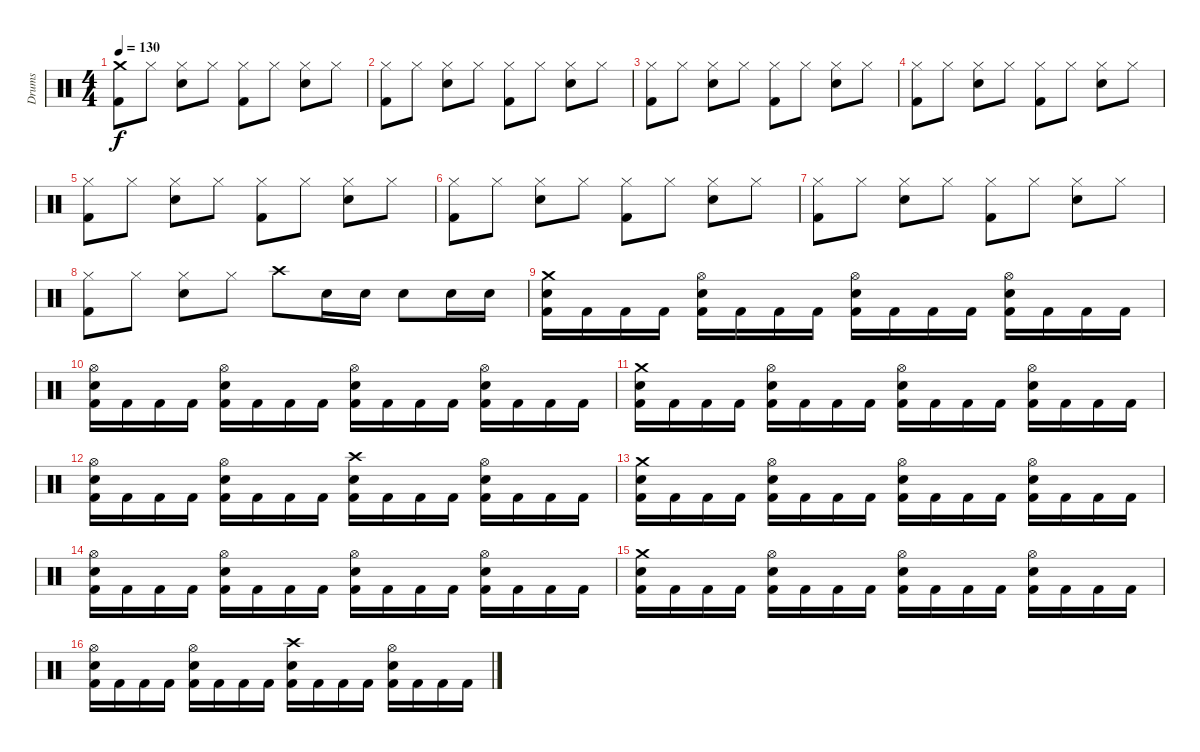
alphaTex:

\track ("Drums" "Drums") {instrument percussion}
\staff {score}
\articulation defaults
\ts (4 4)
\tempo 130
\clef neutral
\ks c
("Crash medium (hit)" "Kick (hit) 2").8{dy f} "Hi-Hat (closed)".8 ("Hi-Hat (closed)" "Snare (hit) 2").8 "Hi-Hat (closed)".8 ("Hi-Hat (closed)" "Kick (hit) 2").8 "Hi-Hat (closed)".8 ("Hi-Hat (closed)" "Snare (hit) 2").8 "Hi-Hat (closed)".8 |
("Hi-Hat (closed)" "Kick (hit) 2").8 "Hi-Hat (closed)".8 ("Hi-Hat (closed)" "Snare (hit) 2").8 "Hi-Hat (closed)".8 ("Hi-Hat (closed)" "Kick (hit) 2").8 "Hi-Hat (closed)".8 ("Hi-Hat (closed)" "Snare (hit) 2").8 "Hi-Hat (closed)".8 |
("Hi-Hat (closed)" "Kick (hit) 2").8 "Hi-Hat (closed)".8 ("Hi-Hat (closed)" "Snare (hit) 2").8 "Hi-Hat (closed)".8 ("Hi-Hat (closed)" "Kick (hit) 2").8 "Hi-Hat (closed)".8 ("Hi-Hat (closed)" "Snare (hit) 2").8 "Hi-Hat (closed)".8 |
("Hi-Hat (closed)" "Kick (hit) 2").8 "Hi-Hat (closed)".8 ("Hi-Hat (closed)" "Snare (hit) 2").8 "Hi-Hat (closed)".8 ("Hi-Hat (closed)" "Kick (hit) 2").8 "Hi-Hat (closed)".8 ("Hi-Hat (closed)" "Snare (hit) 2").8 "Hi-Hat (closed)".8 |
("Hi-Hat (closed)" "Kick (hit) 2").8 "Hi-Hat (closed)".8 ("Hi-Hat (closed)" "Snare (hit) 2").8 "Hi-Hat (closed)".8 ("Hi-Hat (closed)" "Kick (hit) 2").8 "Hi-Hat (closed)".8 ("Hi-Hat (closed)" "Snare (hit) 2").8 "Hi-Hat (closed)".8 |
("Hi-Hat (closed)" "Kick (hit) 2").8 "Hi-Hat (closed)".8 ("Hi-Hat (closed)" "Snare (hit) 2").8 "Hi-Hat (closed)".8 ("Hi-Hat (closed)" "Kick (hit) 2").8 "Hi-Hat (closed)".8 ("Hi-Hat (closed)" "Snare (hit) 2").8 "Hi-Hat (closed)".8 |
("Hi-Hat (closed)" "Kick (hit) 2").8 "Hi-Hat (closed)".8 ("Hi-Hat (closed)" "Snare (hit) 2").8 "Hi-Hat (closed)".8 ("Hi-Hat (closed)" "Kick (hit) 2").8 "Hi-Hat (closed)".8 ("Hi-Hat (closed)" "Snare (hit) 2").8 "Hi-Hat (closed)".8 |
("Hi-Hat (closed)" "Kick (hit) 2").8 "Hi-Hat (closed)".8 ("Hi-Hat (closed)" "Snare (hit) 2").8 "Hi-Hat (closed)".8 "Crash high (hit)".8 "Snare (hit) 2".16 "Snare (hit) 2".16 "Snare (hit) 2".8 "Snare (hit) 2".16 "Snare (hit) 2".16 |
("Crash medium (hit)" "Snare (hit) 2" "Kick (hit) 2").16 "Kick (hit) 2".16 "Kick (hit) 2".16 "Kick (hit) 2".16 ("Hi-Hat (open)" "Snare (hit) 2" "Kick (hit) 2").16 "Kick (hit) 2".16 "Kick (hit) 2".16 "Kick (hit) 2".16 ("Hi-Hat (open)" "Snare (hit) 2" "Kick (hit) 2").16 "Kick (hit) 2".16 "Kick (hit) 2".16 "Kick (hit) 2".16 ("Hi-Hat (open)" "Snare (hit) 2" "Kick (hit) 2").16 "Kick (hit) 2".16 "Kick (hit) 2".16 "Kick (hit) 2".16 |
("Hi-Hat (open)" "Snare (hit) 2" "Kick (hit) 2").16 "Kick (hit) 2".16 "Kick (hit) 2".16 "Kick (hit) 2".16 ("Hi-Hat (open)" "Snare (hit) 2" "Kick (hit) 2").16 "Kick (hit) 2".16 "Kick (hit) 2".16 "Kick (hit) 2".16 ("Hi-Hat (open)" "Snare (hit) 2" "Kick (hit) 2").16 "Kick (hit) 2".16 "Kick (hit) 2".16 "Kick (hit) 2".16 ("Hi-Hat (open)" "Snare (hit) 2" "Kick (hit) 2").16 "Kick (hit) 2".16 "Kick (hit) 2".16 "Kick (hit) 2".16 |
("Crash medium (hit)" "Snare (hit) 2" "Kick (hit) 2").16 "Kick (hit) 2".16 "Kick (hit) 2".16 "Kick (hit) 2".16 ("Hi-Hat (open)" "Snare (hit) 2" "Kick (hit) 2").16 "Kick (hit) 2".16 "Kick (hit) 2".16 "Kick (hit) 2".16 ("Hi-Hat (open)" "Snare (hit) 2" "Kick (hit) 2").16 "Kick (hit) 2".16 "Kick (hit) 2".16 "Kick (hit) 2".16 ("Hi-Hat (open)" "Snare (hit) 2" "Kick (hit) 2").16 "Kick (hit) 2".16 "Kick (hit) 2".16 "Kick (hit) 2".16 |
("Hi-Hat (open)" "Snare (hit) 2" "Kick (hit) 2").16 "Kick (hit) 2".16 "Kick (hit) 2".16 "Kick (hit) 2".16 ("Hi-Hat (open)" "Snare (hit) 2" "Kick (hit) 2").16 "Kick (hit) 2".16 "Kick (hit) 2".16 "Kick (hit) 2".16 ("Crash high (hit)" "Snare (hit) 2" "Kick (hit) 2").16 "Kick (hit) 2".16 "Kick (hit) 2".16 "Kick (hit) 2".16 ("Hi-Hat (open)" "Snare (hit) 2" "Kick (hit) 2").16 "Kick (hit) 2".16 "Kick (hit) 2".16 "Kick (hit) 2".16 |
("Crash medium (hit)" "Snare (hit) 2" "Kick (hit) 2").16 "Kick (hit) 2".16 "Kick (hit) 2".16 "Kick (hit) 2".16 ("Hi-Hat (open)" "Snare (hit) 2" "Kick (hit) 2").16 "Kick (hit) 2".16 "Kick (hit) 2".16 "Kick (hit) 2".16 ("Hi-Hat (open)" "Snare (hit) 2" "Kick (hit) 2").16 "Kick (hit) 2".16 "Kick (hit) 2".16 "Kick (hit) 2".16 ("Hi-Hat (open)" "Snare (hit) 2" "Kick (hit) 2").16 "Kick (hit) 2".16 "Kick (hit) 2".16 "Kick (hit) 2".16 |
("Hi-Hat (open)" "Snare (hit) 2" "Kick (hit) 2").16 "Kick (hit) 2".16 "Kick (hit) 2".16 "Kick (hit) 2".16 ("Hi-Hat (open)" "Snare (hit) 2" "Kick (hit) 2").16 "Kick (hit) 2".16 "Kick (hit) 2".16 "Kick (hit) 2".16 ("Hi-Hat (open)" "Snare (hit) 2" "Kick (hit) 2").16 "Kick (hit) 2".16 "Kick (hit) 2".16 "Kick (hit) 2".16 ("Hi-Hat (open)" "Snare (hit) 2" "Kick (hit) 2").16 "Kick (hit) 2".16 "Kick (hit) 2".16 "Kick (hit) 2".16 |
("Crash medium (hit)" "Snare (hit) 2" "Kick (hit) 2").16 "Kick (hit) 2".16 "Kick (hit) 2".16 "Kick (hit) 2".16 ("Hi-Hat (open)" "Snare (hit) 2" "Kick (hit) 2").16 "Kick (hit) 2".16 "Kick (hit) 2".16 "Kick (hit) 2".16 ("Hi-Hat (open)" "Snare (hit) 2" "Kick (hit) 2").16 "Kick (hit) 2".16 "Kick (hit) 2".16 "Kick (hit) 2".16 ("Hi-Hat (open)" "Snare (hit) 2" "Kick (hit) 2").16 "Kick (hit) 2".16 "Kick (hit) 2".16 "Kick (hit) 2".16 |
("Hi-Hat (open)" "Snare (hit) 2" "Kick (hit) 2").16 "Kick (hit) 2".16 "Kick (hit) 2".16 "Kick (hit) 2".16 ("Hi-Hat (open)" "Snare (hit) 2" "Kick (hit) 2").16 "Kick (hit) 2".16 "Kick (hit) 2".16 "Kick (hit) 2".16 ("Crash high (hit)" "Snare (hit) 2" "Kick (hit) 2").16 "Kick (hit) 2".16 "Kick (hit) 2".16 "Kick (hit) 2".16 ("Hi-Hat (open)" "Snare (hit) 2" "Kick (hit) 2").16 "Kick (hit) 2".16 "Kick (hit) 2".16 "Kick (hit) 2".16
